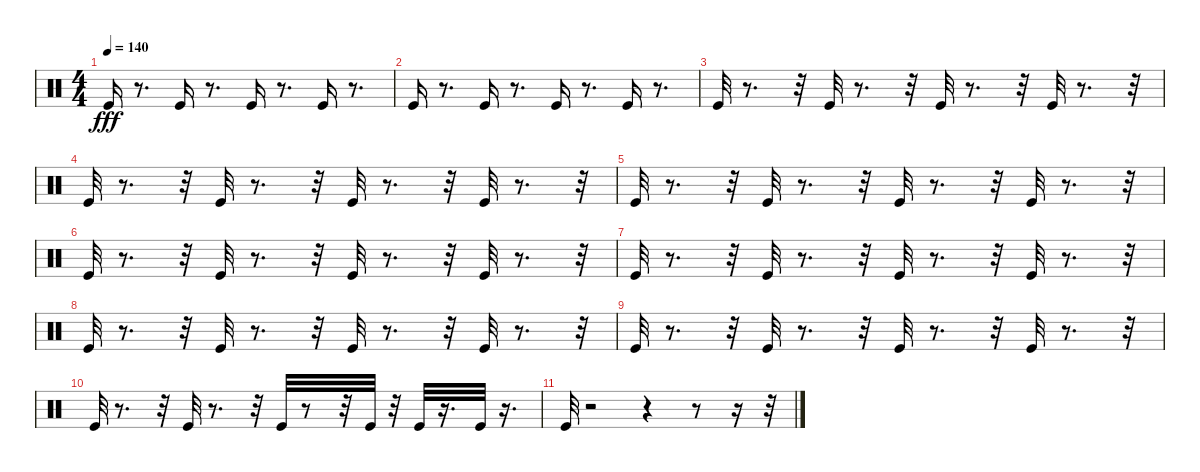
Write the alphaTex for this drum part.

\track "" {instrument percussion}
\staff {score}
\articulation defaults
\ts (4 4)
\tempo 140
\clef neutral
\ks c "Kick (hit)".16{dy fff}
r.8{d} "Kick (hit)".16 r.8{d} "Kick (hit)".16 r.8{d} "Kick (hit)".16 r.8{d} |
"Kick (hit)".16 r.8{d} "Kick (hit)".16 r.8{d} "Kick (hit)".16 r.8{d} "Kick (hit)".16 r.8{d} |
"Kick (hit)".32 r.8{d} r.32 "Kick (hit)".32 r.8{d} r.32 "Kick (hit)".32 r.8{d} r.32 "Kick (hit)".32 r.8{d} r.32 |
"Kick (hit)".32 r.8{d} r.32 "Kick (hit)".32 r.8{d} r.32 "Kick (hit)".32 r.8{d} r.32 "Kick (hit)".32 r.8{d} r.32 |
"Kick (hit)".32 r.8{d} r.32 "Kick (hit)".32 r.8{d} r.32 "Kick (hit)".32 r.8{d} r.32 "Kick (hit)".32 r.8{d} r.32 |
"Kick (hit)".32 r.8{d} r.32 "Kick (hit)".32 r.8{d} r.32 "Kick (hit)".32 r.8{d} r.32 "Kick (hit)".32 r.8{d} r.32 |
"Kick (hit)".32 r.8{d} r.32 "Kick (hit)".32 r.8{d} r.32 "Kick (hit)".32 r.8{d} r.32 "Kick (hit)".32 r.8{d} r.32 |
"Kick (hit)".32 r.8{d} r.32 "Kick (hit)".32 r.8{d} r.32 "Kick (hit)".32 r.8{d} r.32 "Kick (hit)".32 r.8{d} r.32 |
"Kick (hit)".32 r.8{d} r.32 "Kick (hit)".32 r.8{d} r.32 "Kick (hit)".32 r.8{d} r.32 "Kick (hit)".32 r.8{d} r.32 |
"Kick (hit)".32 r.8{d} r.32 "Kick (hit)".32 r.8{d} r.32 "Kick (hit)".32 r.8 r.32 "Kick (hit)".32 r.32 "Kick (hit)".32 r.16{d} "Kick (hit)".32 r.16{d} |
"Kick (hit)".32 r.2 r.4 r.8 r.16 r.32
